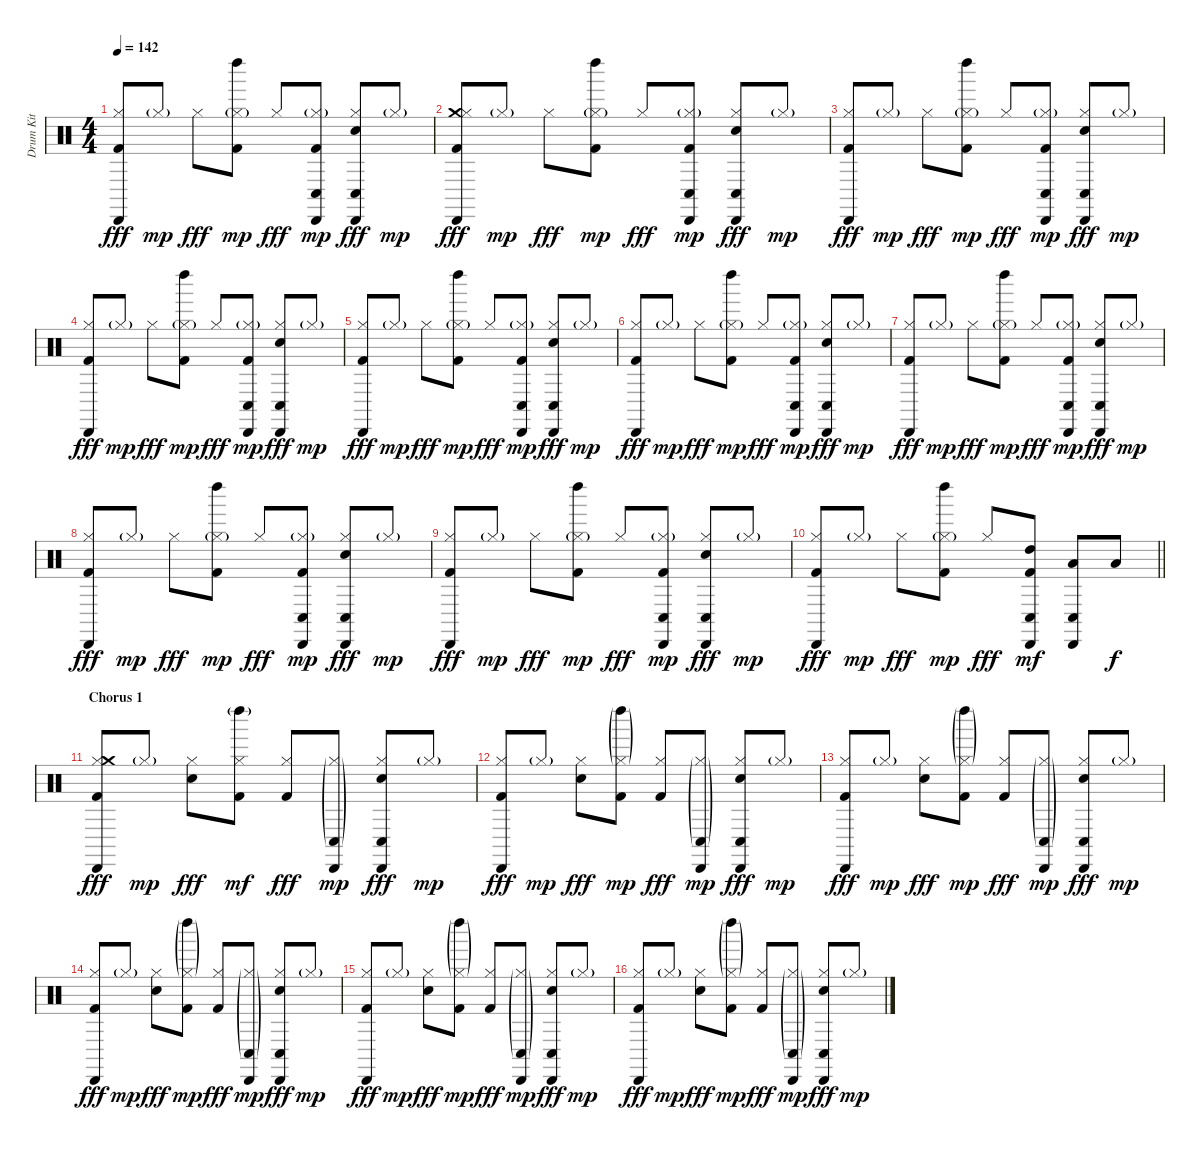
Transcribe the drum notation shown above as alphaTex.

\track ("Drum Kit" "Drum Kit") {instrument percussion}
\staff {score}
\articulation defaults
\ts (4 4)
\tempo 142
\clef neutral
\ks c
("Cabasa (hit)" "Kick (hit) 2" "Hi-Hat (closed)").8{dy fff} "Hi-Hat (closed)"{g}.8{dy mp} "Hi-Hat (closed)".8{dy fff} ("Kick (hit) 2" "Hi-Hat (closed)"{g} "Left Maraca (hit)").8{dy mp} "Hi-Hat (closed)".8{dy fff} ("Kick (hit) 2" "Conga low (hit)" "Hi-Hat (closed)"{g} "Cabasa (hit)").8{dy mp} ("Conga low (hit)" "Snare (hit) 2" "Cabasa (hit)" "Hi-Hat (closed)").8{dy fff} "Hi-Hat (closed)"{g}.8{dy mp} |
("Crash medium (hit)" "Cabasa (hit)" "Kick (hit) 2" "Hi-Hat (closed)").8{dy fff} "Hi-Hat (closed)"{g}.8{dy mp} "Hi-Hat (closed)".8{dy fff} ("Kick (hit) 2" "Left Maraca (hit)" "Hi-Hat (closed)"{g}).8{dy mp} "Hi-Hat (closed)".8{dy fff} ("Cabasa (hit)" "Kick (hit) 2" "Conga low (hit)" "Hi-Hat (closed)"{g}).8{dy mp} ("Conga low (hit)" "Snare (hit) 2" "Cabasa (hit)" "Hi-Hat (closed)").8{dy fff} "Hi-Hat (closed)"{g}.8{dy mp} |
("Cabasa (hit)" "Kick (hit) 2" "Hi-Hat (closed)").8{dy fff} "Hi-Hat (closed)"{g}.8{dy mp} "Hi-Hat (closed)".8{dy fff} ("Kick (hit) 2" "Hi-Hat (closed)"{g} "Left Maraca (hit)").8{dy mp} "Hi-Hat (closed)".8{dy fff} ("Kick (hit) 2" "Conga low (hit)" "Hi-Hat (closed)"{g} "Cabasa (hit)").8{dy mp} ("Conga low (hit)" "Snare (hit) 2" "Cabasa (hit)" "Hi-Hat (closed)").8{dy fff} "Hi-Hat (closed)"{g}.8{dy mp} |
("Cabasa (hit)" "Kick (hit) 2" "Hi-Hat (closed)").8{dy fff} "Hi-Hat (closed)"{g}.8{dy mp} "Hi-Hat (closed)".8{dy fff} ("Kick (hit) 2" "Hi-Hat (closed)"{g} "Left Maraca (hit)").8{dy mp} "Hi-Hat (closed)".8{dy fff} ("Kick (hit) 2" "Conga low (hit)" "Hi-Hat (closed)"{g} "Cabasa (hit)").8{dy mp} ("Conga low (hit)" "Snare (hit) 2" "Cabasa (hit)" "Hi-Hat (closed)").8{dy fff} "Hi-Hat (closed)"{g}.8{dy mp} |
("Cabasa (hit)" "Kick (hit) 2" "Hi-Hat (closed)").8{dy fff} "Hi-Hat (closed)"{g}.8{dy mp} "Hi-Hat (closed)".8{dy fff} ("Kick (hit) 2" "Hi-Hat (closed)"{g} "Left Maraca (hit)").8{dy mp} "Hi-Hat (closed)".8{dy fff} ("Kick (hit) 2" "Conga low (hit)" "Hi-Hat (closed)"{g} "Cabasa (hit)").8{dy mp} ("Conga low (hit)" "Snare (hit) 2" "Cabasa (hit)" "Hi-Hat (closed)").8{dy fff} "Hi-Hat (closed)"{g}.8{dy mp} |
("Cabasa (hit)" "Kick (hit) 2" "Hi-Hat (closed)").8{dy fff} "Hi-Hat (closed)"{g}.8{dy mp} "Hi-Hat (closed)".8{dy fff} ("Kick (hit) 2" "Hi-Hat (closed)"{g} "Left Maraca (hit)").8{dy mp} "Hi-Hat (closed)".8{dy fff} ("Kick (hit) 2" "Conga low (hit)" "Hi-Hat (closed)"{g} "Cabasa (hit)").8{dy mp} ("Conga low (hit)" "Snare (hit) 2" "Cabasa (hit)" "Hi-Hat (closed)").8{dy fff} "Hi-Hat (closed)"{g}.8{dy mp} |
("Cabasa (hit)" "Kick (hit) 2" "Hi-Hat (closed)").8{dy fff} "Hi-Hat (closed)"{g}.8{dy mp} "Hi-Hat (closed)".8{dy fff} ("Kick (hit) 2" "Hi-Hat (closed)"{g} "Left Maraca (hit)").8{dy mp} "Hi-Hat (closed)".8{dy fff} ("Kick (hit) 2" "Conga low (hit)" "Hi-Hat (closed)"{g} "Cabasa (hit)").8{dy mp} ("Conga low (hit)" "Snare (hit) 2" "Cabasa (hit)" "Hi-Hat (closed)").8{dy fff} "Hi-Hat (closed)"{g}.8{dy mp} |
("Cabasa (hit)" "Kick (hit) 2" "Hi-Hat (closed)").8{dy fff} "Hi-Hat (closed)"{g}.8{dy mp} "Hi-Hat (closed)".8{dy fff} ("Kick (hit) 2" "Hi-Hat (closed)"{g} "Left Maraca (hit)").8{dy mp} "Hi-Hat (closed)".8{dy fff} ("Kick (hit) 2" "Conga low (hit)" "Hi-Hat (closed)"{g} "Cabasa (hit)").8{dy mp} ("Conga low (hit)" "Snare (hit) 2" "Cabasa (hit)" "Hi-Hat (closed)").8{dy fff} "Hi-Hat (closed)"{g}.8{dy mp} |
("Cabasa (hit)" "Kick (hit) 2" "Hi-Hat (closed)").8{dy fff} "Hi-Hat (closed)"{g}.8{dy mp} "Hi-Hat (closed)".8{dy fff} ("Kick (hit) 2" "Hi-Hat (closed)"{g} "Left Maraca (hit)").8{dy mp} "Hi-Hat (closed)".8{dy fff} ("Kick (hit) 2" "Conga low (hit)" "Hi-Hat (closed)"{g} "Cabasa (hit)").8{dy mp} ("Conga low (hit)" "Snare (hit) 2" "Cabasa (hit)" "Hi-Hat (closed)").8{dy fff} "Hi-Hat (closed)"{g}.8{dy mp} |
\barLineRight lightlight
("Cabasa (hit)" "Kick (hit) 2" "Hi-Hat (closed)").8{dy fff} "Hi-Hat (closed)"{g}.8{dy mp} "Hi-Hat (closed)".8{dy fff} ("Kick (hit) 2" "Hi-Hat (closed)"{g} "Left Maraca (hit)").8{dy mp} "Hi-Hat (closed)".8{dy fff} ("High Tom (hit)" "Cabasa (hit)" "Kick (hit) 2" "Conga low (hit)").8{dy mf} ("Conga low (hit)" "Cabasa (hit)" "Low Tom (hit)").8 "Low Floor Tom (hit)".8{dy f} |
\section ("" "Chorus 1")
("Kick (hit) 2" "Hi-Hat (closed)" "Cabasa (hit)" "Crash medium (hit)").8{dy fff} "Hi-Hat (closed)"{g}.8{dy mp} ("Snare (hit) 2" "Hi-Hat (closed)").8{dy fff} ("Kick (hit) 2" "Hi-Hat (closed)" "Left Maraca (hit)"{g}).8{dy mf} ("Kick (hit) 2" "Hi-Hat (closed)").8{dy fff} ("Cabasa (hit)" "Conga low (hit)"{g} "Hi-Hat (closed)"{g}).8{dy mp} ("Conga low (hit)" "Snare (hit) 2" "Cabasa (hit)" "Hi-Hat (closed)").8{dy fff} "Hi-Hat (closed)"{g}.8{dy mp} |
("Cabasa (hit)" "Kick (hit) 2" "Hi-Hat (closed)").8{dy fff} "Hi-Hat (closed)"{g}.8{dy mp} ("Snare (hit) 2" "Hi-Hat (closed)").8{dy fff} ("Kick (hit) 2" "Left Maraca (hit)"{g} "Hi-Hat (closed)"{g}).8{dy mp} ("Kick (hit) 2" "Hi-Hat (closed)").8{dy fff} ("Cabasa (hit)" "Conga low (hit)"{g} "Hi-Hat (closed)"{g}).8{dy mp} ("Conga low (hit)" "Snare (hit) 2" "Cabasa (hit)" "Hi-Hat (closed)").8{dy fff} "Hi-Hat (closed)"{g}.8{dy mp} |
("Cabasa (hit)" "Kick (hit) 2" "Hi-Hat (closed)").8{dy fff} "Hi-Hat (closed)"{g}.8{dy mp} ("Snare (hit) 2" "Hi-Hat (closed)").8{dy fff} ("Kick (hit) 2" "Left Maraca (hit)"{g} "Hi-Hat (closed)"{g}).8{dy mp} ("Kick (hit) 2" "Hi-Hat (closed)").8{dy fff} ("Cabasa (hit)" "Conga low (hit)"{g} "Hi-Hat (closed)"{g}).8{dy mp} ("Conga low (hit)" "Snare (hit) 2" "Cabasa (hit)" "Hi-Hat (closed)").8{dy fff} "Hi-Hat (closed)"{g}.8{dy mp} |
("Cabasa (hit)" "Kick (hit) 2" "Hi-Hat (closed)").8{dy fff} "Hi-Hat (closed)"{g}.8{dy mp} ("Snare (hit) 2" "Hi-Hat (closed)").8{dy fff} ("Kick (hit) 2" "Left Maraca (hit)"{g} "Hi-Hat (closed)"{g}).8{dy mp} ("Kick (hit) 2" "Hi-Hat (closed)").8{dy fff} ("Cabasa (hit)" "Conga low (hit)"{g} "Hi-Hat (closed)"{g}).8{dy mp} ("Conga low (hit)" "Snare (hit) 2" "Cabasa (hit)" "Hi-Hat (closed)").8{dy fff} "Hi-Hat (closed)"{g}.8{dy mp} |
("Cabasa (hit)" "Kick (hit) 2" "Hi-Hat (closed)").8{dy fff} "Hi-Hat (closed)"{g}.8{dy mp} ("Snare (hit) 2" "Hi-Hat (closed)").8{dy fff} ("Kick (hit) 2" "Left Maraca (hit)"{g} "Hi-Hat (closed)"{g}).8{dy mp} ("Kick (hit) 2" "Hi-Hat (closed)").8{dy fff} ("Cabasa (hit)" "Conga low (hit)"{g} "Hi-Hat (closed)"{g}).8{dy mp} ("Conga low (hit)" "Snare (hit) 2" "Cabasa (hit)" "Hi-Hat (closed)").8{dy fff} "Hi-Hat (closed)"{g}.8{dy mp} |
("Cabasa (hit)" "Kick (hit) 2" "Hi-Hat (closed)").8{dy fff} "Hi-Hat (closed)"{g}.8{dy mp} ("Snare (hit) 2" "Hi-Hat (closed)").8{dy fff} ("Kick (hit) 2" "Left Maraca (hit)"{g} "Hi-Hat (closed)"{g}).8{dy mp} ("Kick (hit) 2" "Hi-Hat (closed)").8{dy fff} ("Cabasa (hit)" "Conga low (hit)"{g} "Hi-Hat (closed)"{g}).8{dy mp} ("Conga low (hit)" "Snare (hit) 2" "Cabasa (hit)" "Hi-Hat (closed)").8{dy fff} "Hi-Hat (closed)"{g}.8{dy mp}
